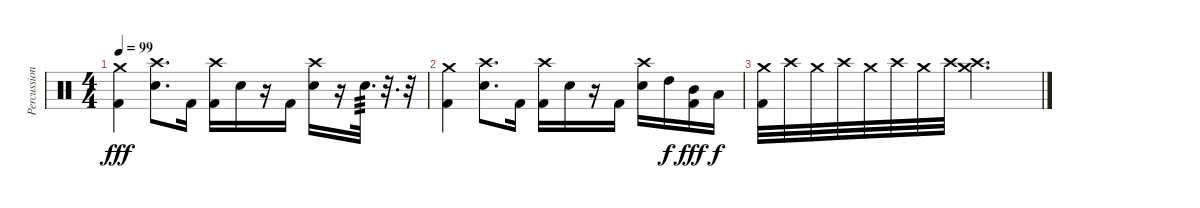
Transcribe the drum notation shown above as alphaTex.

\track ("Percussion" "Percussion") {instrument percussion}
\staff {score}
\articulation defaults
\ts (4 4)
\tempo 99
\clef neutral
\ks c
("Crash medium (hit)" "Kick (hit) 2").4{dy fff} ("Crash high (hit)" "Snare (hit) 2").8{d} "Kick (hit) 2".16 ("Crash high (hit)" "Kick (hit) 2").16 "Snare (hit) 2".16 r.16 "Kick (hit) 2".16 ("Crash high (hit)" "Snare (hit) 2").16 r.16 "Snare (hit) 2".32{d tp 3} r.32{d} r.32 |
("Crash medium (hit)" "Kick (hit) 2").4 ("Crash high (hit)" "Snare (hit) 2").8{d} "Kick (hit) 2".16 ("Crash high (hit)" "Kick (hit) 2").16 "Snare (hit) 2".16 r.16 "Kick (hit) 2".16 ("Crash high (hit)" "Snare (hit) 2").16 "High Tom (hit)".16{dy f} ("Mid Tom (hit)" "Kick (hit) 2").16{dy fff} "Low Tom (hit)".16{dy f} |
("Crash medium (hit)" "Kick (hit) 2").32 "Crash high (hit)".32 "Crash medium (hit)".32 "Crash high (hit)".32 "Crash medium (hit)".32 "Crash high (hit)".32 "Crash medium (hit)".32 "Crash high (hit)".32 ("Crash medium (hit)" "Crash high (hit)").2{d}
